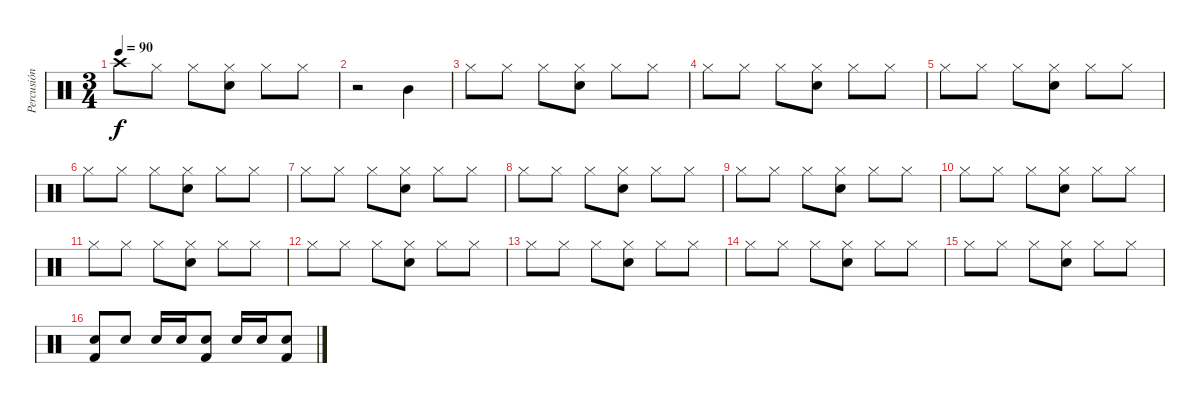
\track ("Percusión" "Percusión") {instrument percussion}
\staff {score}
\articulation defaults
\ts (3 4)
\tempo 90
\clef neutral
\ks c "Crash high (hit)".8{dy f} "Hi-Hat (closed)".8 "Hi-Hat (closed)".8
("Electric Snare (hit)" "Hi-Hat (closed)").8 "Hi-Hat (closed)".8 "Hi-Hat (closed)".8 |
r.2 "Mid Tom (hit)".4 |
"Hi-Hat (closed)".8 "Hi-Hat (closed)".8 "Hi-Hat (closed)".8 ("Electric Snare (hit)" "Hi-Hat (closed)").8 "Hi-Hat (closed)".8 "Hi-Hat (closed)".8 |
"Hi-Hat (closed)".8 "Hi-Hat (closed)".8 "Hi-Hat (closed)".8 ("Electric Snare (hit)" "Hi-Hat (closed)").8 "Hi-Hat (closed)".8 "Hi-Hat (closed)".8 |
"Hi-Hat (closed)".8 "Hi-Hat (closed)".8 "Hi-Hat (closed)".8 ("Electric Snare (hit)" "Hi-Hat (closed)").8 "Hi-Hat (closed)".8 "Hi-Hat (closed)".8 |
"Hi-Hat (closed)".8 "Hi-Hat (closed)".8 "Hi-Hat (closed)".8 ("Electric Snare (hit)" "Hi-Hat (closed)").8 "Hi-Hat (closed)".8 "Hi-Hat (closed)".8 |
"Hi-Hat (closed)".8 "Hi-Hat (closed)".8 "Hi-Hat (closed)".8 ("Electric Snare (hit)" "Hi-Hat (closed)").8 "Hi-Hat (closed)".8 "Hi-Hat (closed)".8 |
"Hi-Hat (closed)".8 "Hi-Hat (closed)".8 "Hi-Hat (closed)".8 ("Electric Snare (hit)" "Hi-Hat (closed)").8 "Hi-Hat (closed)".8 "Hi-Hat (closed)".8 |
"Hi-Hat (closed)".8 "Hi-Hat (closed)".8 "Hi-Hat (closed)".8 ("Electric Snare (hit)" "Hi-Hat (closed)").8 "Hi-Hat (closed)".8 "Hi-Hat (closed)".8 |
"Hi-Hat (closed)".8 "Hi-Hat (closed)".8 "Hi-Hat (closed)".8 ("Electric Snare (hit)" "Hi-Hat (closed)").8 "Hi-Hat (closed)".8 "Hi-Hat (closed)".8 |
"Hi-Hat (closed)".8 "Hi-Hat (closed)".8 "Hi-Hat (closed)".8 ("Electric Snare (hit)" "Hi-Hat (closed)").8 "Hi-Hat (closed)".8 "Hi-Hat (closed)".8 |
"Hi-Hat (closed)".8 "Hi-Hat (closed)".8 "Hi-Hat (closed)".8 ("Electric Snare (hit)" "Hi-Hat (closed)").8 "Hi-Hat (closed)".8 "Hi-Hat (closed)".8 |
"Hi-Hat (closed)".8 "Hi-Hat (closed)".8 "Hi-Hat (closed)".8 ("Electric Snare (hit)" "Hi-Hat (closed)").8 "Hi-Hat (closed)".8 "Hi-Hat (closed)".8 |
"Hi-Hat (closed)".8 "Hi-Hat (closed)".8 "Hi-Hat (closed)".8 ("Electric Snare (hit)" "Hi-Hat (closed)").8 "Hi-Hat (closed)".8 "Hi-Hat (closed)".8 |
"Hi-Hat (closed)".8 "Hi-Hat (closed)".8 "Hi-Hat (closed)".8 ("Electric Snare (hit)" "Hi-Hat (closed)").8 "Hi-Hat (closed)".8 "Hi-Hat (closed)".8 |
("Electric Snare (hit)" "Kick (hit) 2").8 "Electric Snare (hit)".8 "Electric Snare (hit)".16 "Electric Snare (hit)".16 ("Electric Snare (hit)" "Kick (hit) 2").8 "Electric Snare (hit)".16 "Electric Snare (hit)".16 ("Electric Snare (hit)" "Kick (hit) 2").8
